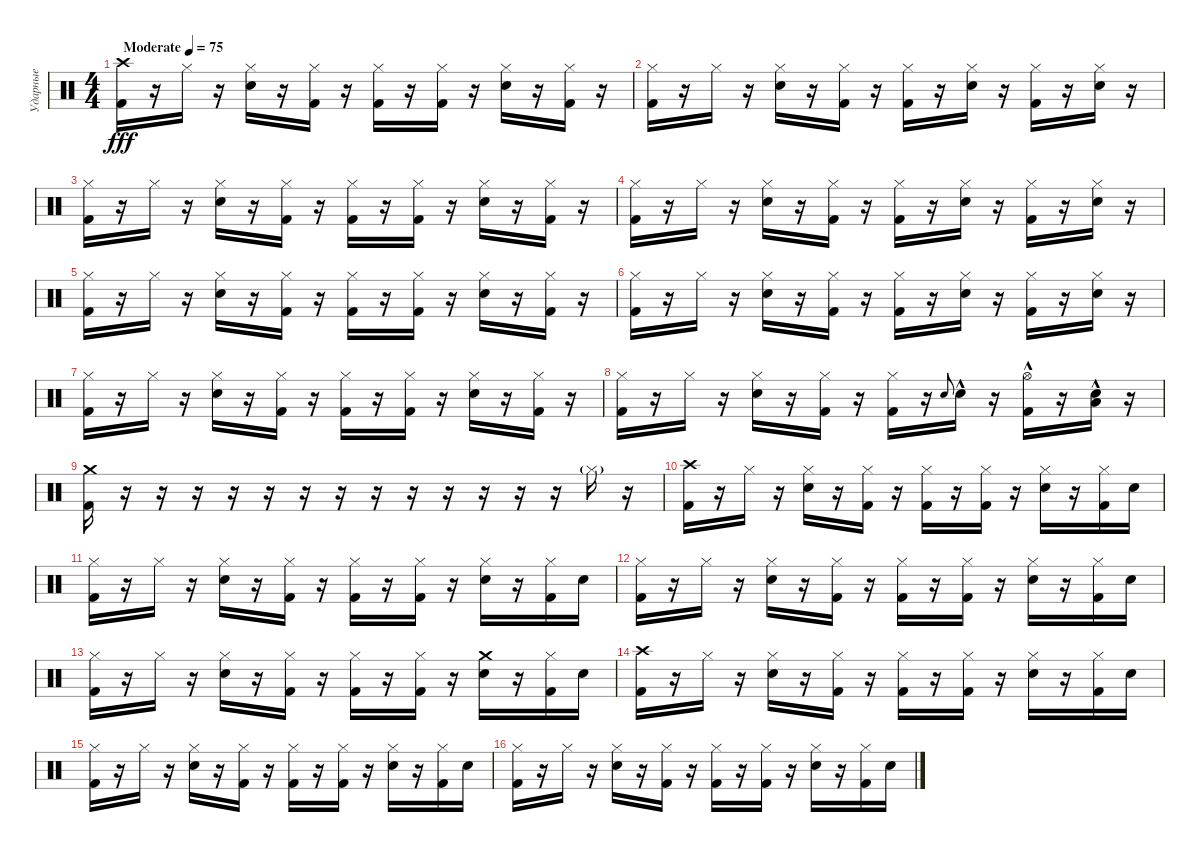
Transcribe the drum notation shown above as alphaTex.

\track ("Ударные" "Ударные") {instrument percussion}
\staff {score}
\articulation defaults
\ts (4 4)
\tempo (75 "Moderate")
\clef neutral
\ks c
("Crash high (hit)" "Kick (hit) 2").16{dy fff} r.16 "Hi-Hat (closed)".16 r.16 ("Hi-Hat (closed)" "Electric Snare (hit)").16 r.16 ("Hi-Hat (closed)" "Kick (hit) 2").16 r.16 ("Hi-Hat (closed)" "Kick (hit) 2").16 r.16 ("Hi-Hat (closed)" "Kick (hit) 2").16 r.16 ("Hi-Hat (closed)" "Electric Snare (hit)").16 r.16 ("Hi-Hat (closed)" "Kick (hit) 2").16 r.16 |
("Hi-Hat (closed)" "Kick (hit) 2").16 r.16 "Hi-Hat (closed)".16 r.16 ("Hi-Hat (closed)" "Electric Snare (hit)").16 r.16 ("Hi-Hat (closed)" "Kick (hit) 2").16 r.16 ("Hi-Hat (closed)" "Kick (hit) 2").16 r.16 ("Hi-Hat (closed)" "Electric Snare (hit)").16 r.16 ("Hi-Hat (closed)" "Kick (hit) 2").16 r.16 ("Hi-Hat (closed)" "Electric Snare (hit)").16 r.16 |
("Hi-Hat (closed)" "Kick (hit) 2").16 r.16 "Hi-Hat (closed)".16 r.16 ("Hi-Hat (closed)" "Electric Snare (hit)").16 r.16 ("Hi-Hat (closed)" "Kick (hit) 2").16 r.16 ("Hi-Hat (closed)" "Kick (hit) 2").16 r.16 ("Hi-Hat (closed)" "Kick (hit) 2").16 r.16 ("Hi-Hat (closed)" "Electric Snare (hit)").16 r.16 ("Hi-Hat (closed)" "Kick (hit) 2").16 r.16 |
("Hi-Hat (closed)" "Kick (hit) 2").16 r.16 "Hi-Hat (closed)".16 r.16 ("Hi-Hat (closed)" "Electric Snare (hit)").16 r.16 ("Hi-Hat (closed)" "Kick (hit) 2").16 r.16 ("Hi-Hat (closed)" "Kick (hit) 2").16 r.16 ("Hi-Hat (closed)" "Electric Snare (hit)").16 r.16 ("Hi-Hat (closed)" "Kick (hit) 2").16 r.16 ("Hi-Hat (closed)" "Electric Snare (hit)").16 r.16 |
("Hi-Hat (closed)" "Kick (hit) 2").16 r.16 "Hi-Hat (closed)".16 r.16 ("Hi-Hat (closed)" "Electric Snare (hit)").16 r.16 ("Hi-Hat (closed)" "Kick (hit) 2").16 r.16 ("Hi-Hat (closed)" "Kick (hit) 2").16 r.16 ("Hi-Hat (closed)" "Kick (hit) 2").16 r.16 ("Hi-Hat (closed)" "Electric Snare (hit)").16 r.16 ("Hi-Hat (closed)" "Kick (hit) 2").16 r.16 |
("Hi-Hat (closed)" "Kick (hit) 2").16 r.16 "Hi-Hat (closed)".16 r.16 ("Hi-Hat (closed)" "Electric Snare (hit)").16 r.16 ("Hi-Hat (closed)" "Kick (hit) 2").16 r.16 ("Hi-Hat (closed)" "Kick (hit) 2").16 r.16 ("Hi-Hat (closed)" "Electric Snare (hit)").16 r.16 ("Hi-Hat (closed)" "Kick (hit) 2").16 r.16 ("Hi-Hat (closed)" "Electric Snare (hit)").16 r.16 |
("Hi-Hat (closed)" "Kick (hit) 2").16 r.16 "Hi-Hat (closed)".16 r.16 ("Hi-Hat (closed)" "Electric Snare (hit)").16 r.16 ("Hi-Hat (closed)" "Kick (hit) 2").16 r.16 ("Hi-Hat (closed)" "Kick (hit) 2").16 r.16 ("Hi-Hat (closed)" "Kick (hit) 2").16 r.16 ("Hi-Hat (closed)" "Electric Snare (hit)").16 r.16 ("Hi-Hat (closed)" "Kick (hit) 2").16 r.16 |
("Hi-Hat (closed)" "Kick (hit) 2").16 r.16 "Hi-Hat (closed)".16 r.16 ("Hi-Hat (closed)" "Electric Snare (hit)").16 r.16 ("Hi-Hat (closed)" "Kick (hit) 2").16 r.16 ("Hi-Hat (closed)" "Kick (hit) 2").16 r.16 "Electric Snare (hit)".8{gr onbeat} "Electric Snare (hit)"{hac}.16 r.16 ("Hi-Hat (open)"{hac} "Kick (hit) 2").16 r.16 ("Low Floor Tom (hit)"{hac} "Electric Snare (hit)"{hac}).16 r.16 |
("Crash medium (hit)" "Kick (hit) 2").16 r.16 r.16 r.16 r.16 r.16 r.16 r.16 r.16 r.16 r.16 r.16 r.16 r.16 "Hi-Hat (closed)"{g}.16 r.16 |
("Crash high (hit)" "Kick (hit) 2").16 r.16 "Hi-Hat (closed)".16 r.16 ("Hi-Hat (closed)" "Electric Snare (hit)").16 r.16 ("Hi-Hat (closed)" "Kick (hit) 2").16 r.16 ("Hi-Hat (closed)" "Kick (hit) 2").16 r.16 ("Hi-Hat (closed)" "Kick (hit) 2").16 r.16 ("Hi-Hat (closed)" "Electric Snare (hit)").16 r.16 ("Hi-Hat (closed)" "Kick (hit) 2").16 "Electric Snare (hit)".16 |
("Hi-Hat (closed)" "Kick (hit) 2").16 r.16 "Hi-Hat (closed)".16 r.16 ("Hi-Hat (closed)" "Electric Snare (hit)").16 r.16 ("Hi-Hat (closed)" "Kick (hit) 2").16 r.16 ("Hi-Hat (closed)" "Kick (hit) 2").16 r.16 ("Hi-Hat (closed)" "Kick (hit) 2").16 r.16 ("Hi-Hat (closed)" "Electric Snare (hit)").16 r.16 ("Hi-Hat (closed)" "Kick (hit) 2").16 "Electric Snare (hit)".16 |
("Hi-Hat (closed)" "Kick (hit) 2").16 r.16 "Hi-Hat (closed)".16 r.16 ("Hi-Hat (closed)" "Electric Snare (hit)").16 r.16 ("Hi-Hat (closed)" "Kick (hit) 2").16 r.16 ("Hi-Hat (closed)" "Kick (hit) 2").16 r.16 ("Hi-Hat (closed)" "Kick (hit) 2").16 r.16 ("Hi-Hat (closed)" "Electric Snare (hit)").16 r.16 ("Hi-Hat (closed)" "Kick (hit) 2").16 "Electric Snare (hit)".16 |
("Hi-Hat (closed)" "Kick (hit) 2").16 r.16 "Hi-Hat (closed)".16 r.16 ("Hi-Hat (closed)" "Electric Snare (hit)").16 r.16 ("Hi-Hat (closed)" "Kick (hit) 2").16 r.16 ("Hi-Hat (closed)" "Kick (hit) 2").16 r.16 ("Hi-Hat (closed)" "Kick (hit) 2").16 r.16 ("Crash medium (hit)" "Electric Snare (hit)").16 r.16 ("Hi-Hat (closed)" "Kick (hit) 2").16 "Electric Snare (hit)".16 |
("Crash high (hit)" "Kick (hit) 2").16 r.16 "Hi-Hat (closed)".16 r.16 ("Hi-Hat (closed)" "Electric Snare (hit)").16 r.16 ("Hi-Hat (closed)" "Kick (hit) 2").16 r.16 ("Hi-Hat (closed)" "Kick (hit) 2").16 r.16 ("Hi-Hat (closed)" "Kick (hit) 2").16 r.16 ("Hi-Hat (closed)" "Electric Snare (hit)").16 r.16 ("Hi-Hat (closed)" "Kick (hit) 2").16 "Electric Snare (hit)".16 |
("Hi-Hat (closed)" "Kick (hit) 2").16 r.16 "Hi-Hat (closed)".16 r.16 ("Hi-Hat (closed)" "Electric Snare (hit)").16 r.16 ("Hi-Hat (closed)" "Kick (hit) 2").16 r.16 ("Hi-Hat (closed)" "Kick (hit) 2").16 r.16 ("Hi-Hat (closed)" "Kick (hit) 2").16 r.16 ("Hi-Hat (closed)" "Electric Snare (hit)").16 r.16 ("Hi-Hat (closed)" "Kick (hit) 2").16 "Electric Snare (hit)".16 |
("Hi-Hat (closed)" "Kick (hit) 2").16 r.16 "Hi-Hat (closed)".16 r.16 ("Hi-Hat (closed)" "Electric Snare (hit)").16 r.16 ("Hi-Hat (closed)" "Kick (hit) 2").16 r.16 ("Hi-Hat (closed)" "Kick (hit) 2").16 r.16 ("Hi-Hat (closed)" "Kick (hit) 2").16 r.16 ("Hi-Hat (closed)" "Electric Snare (hit)").16 r.16 ("Hi-Hat (closed)" "Kick (hit) 2").16 "Electric Snare (hit)".16
